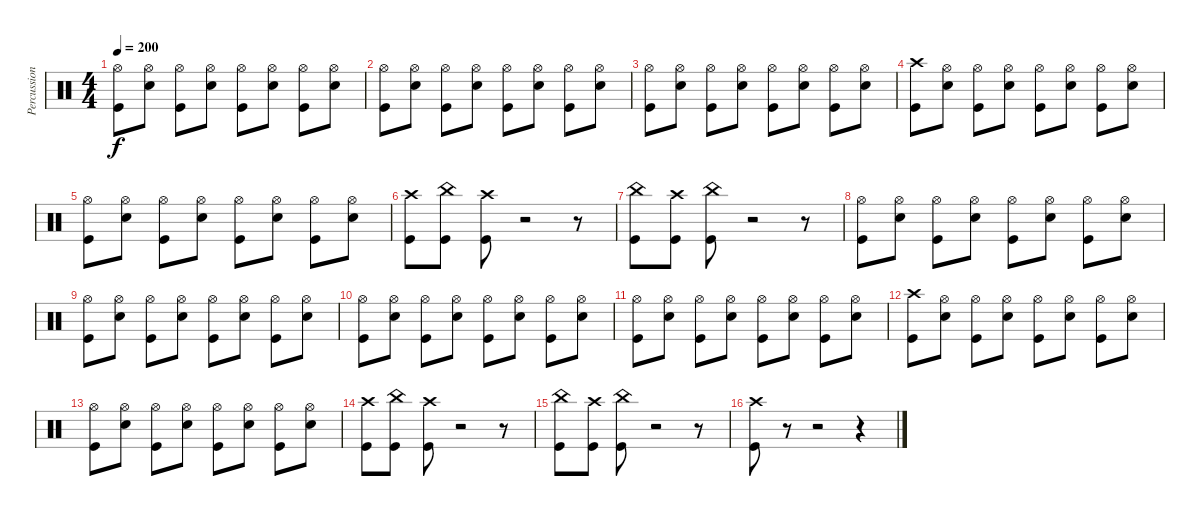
\track ("Percussion" "Percussion") {instrument percussion}
\staff {score}
\articulation defaults
\ts (4 4)
\tempo 200
\clef neutral
\ks c
("Hi-Hat (open)" "Kick (hit)").8{dy f} ("Hi-Hat (open)" "Electric Snare (hit)").8 ("Hi-Hat (open)" "Kick (hit)").8 ("Hi-Hat (open)" "Electric Snare (hit)").8 ("Hi-Hat (open)" "Kick (hit)").8 ("Hi-Hat (open)" "Electric Snare (hit)").8 ("Hi-Hat (open)" "Kick (hit)").8 ("Hi-Hat (open)" "Electric Snare (hit)").8 |
("Hi-Hat (open)" "Kick (hit)").8 ("Hi-Hat (open)" "Electric Snare (hit)").8 ("Hi-Hat (open)" "Kick (hit)").8 ("Hi-Hat (open)" "Electric Snare (hit)").8 ("Hi-Hat (open)" "Kick (hit)").8 ("Hi-Hat (open)" "Electric Snare (hit)").8 ("Hi-Hat (open)" "Kick (hit)").8 ("Hi-Hat (open)" "Electric Snare (hit)").8 |
("Hi-Hat (open)" "Kick (hit)").8 ("Hi-Hat (open)" "Electric Snare (hit)").8 ("Hi-Hat (open)" "Kick (hit)").8 ("Hi-Hat (open)" "Electric Snare (hit)").8 ("Hi-Hat (open)" "Kick (hit)").8 ("Hi-Hat (open)" "Electric Snare (hit)").8 ("Hi-Hat (open)" "Kick (hit)").8 ("Hi-Hat (open)" "Electric Snare (hit)").8 |
("Crash high (hit)" "Kick (hit)").8 ("Hi-Hat (open)" "Electric Snare (hit)").8 ("Hi-Hat (open)" "Kick (hit)").8 ("Hi-Hat (open)" "Electric Snare (hit)").8 ("Hi-Hat (open)" "Kick (hit)").8 ("Hi-Hat (open)" "Electric Snare (hit)").8 ("Hi-Hat (open)" "Kick (hit)").8 ("Hi-Hat (open)" "Electric Snare (hit)").8 |
("Hi-Hat (open)" "Kick (hit)").8 ("Hi-Hat (open)" "Electric Snare (hit)").8 ("Hi-Hat (open)" "Kick (hit)").8 ("Hi-Hat (open)" "Electric Snare (hit)").8 ("Hi-Hat (open)" "Kick (hit)").8 ("Hi-Hat (open)" "Electric Snare (hit)").8 ("Hi-Hat (open)" "Kick (hit)").8 ("Hi-Hat (open)" "Electric Snare (hit)").8 |
("Crash high (hit)" "Kick (hit)").8 ("China (hit)" "Kick (hit)").8 ("Crash high (hit)" "Kick (hit)").8 r.2 r.8 |
("China (hit)" "Kick (hit)").8 ("Crash high (hit)" "Kick (hit)").8 ("China (hit)" "Kick (hit)").8 r.2 r.8 |
("Hi-Hat (open)" "Kick (hit)").8 ("Hi-Hat (open)" "Electric Snare (hit)").8 ("Hi-Hat (open)" "Kick (hit)").8 ("Hi-Hat (open)" "Electric Snare (hit)").8 ("Hi-Hat (open)" "Kick (hit)").8 ("Hi-Hat (open)" "Electric Snare (hit)").8 ("Hi-Hat (open)" "Kick (hit)").8 ("Hi-Hat (open)" "Electric Snare (hit)").8 |
("Hi-Hat (open)" "Kick (hit)").8 ("Hi-Hat (open)" "Electric Snare (hit)").8 ("Hi-Hat (open)" "Kick (hit)").8 ("Hi-Hat (open)" "Electric Snare (hit)").8 ("Hi-Hat (open)" "Kick (hit)").8 ("Hi-Hat (open)" "Electric Snare (hit)").8 ("Hi-Hat (open)" "Kick (hit)").8 ("Hi-Hat (open)" "Electric Snare (hit)").8 |
("Hi-Hat (open)" "Kick (hit)").8 ("Hi-Hat (open)" "Electric Snare (hit)").8 ("Hi-Hat (open)" "Kick (hit)").8 ("Hi-Hat (open)" "Electric Snare (hit)").8 ("Hi-Hat (open)" "Kick (hit)").8 ("Hi-Hat (open)" "Electric Snare (hit)").8 ("Hi-Hat (open)" "Kick (hit)").8 ("Hi-Hat (open)" "Electric Snare (hit)").8 |
("Hi-Hat (open)" "Kick (hit)").8 ("Hi-Hat (open)" "Electric Snare (hit)").8 ("Hi-Hat (open)" "Kick (hit)").8 ("Hi-Hat (open)" "Electric Snare (hit)").8 ("Hi-Hat (open)" "Kick (hit)").8 ("Hi-Hat (open)" "Electric Snare (hit)").8 ("Hi-Hat (open)" "Kick (hit)").8 ("Hi-Hat (open)" "Electric Snare (hit)").8 |
("Crash high (hit)" "Kick (hit)").8 ("Hi-Hat (open)" "Electric Snare (hit)").8 ("Hi-Hat (open)" "Kick (hit)").8 ("Hi-Hat (open)" "Electric Snare (hit)").8 ("Hi-Hat (open)" "Kick (hit)").8 ("Hi-Hat (open)" "Electric Snare (hit)").8 ("Hi-Hat (open)" "Kick (hit)").8 ("Hi-Hat (open)" "Electric Snare (hit)").8 |
("Hi-Hat (open)" "Kick (hit)").8 ("Hi-Hat (open)" "Electric Snare (hit)").8 ("Hi-Hat (open)" "Kick (hit)").8 ("Hi-Hat (open)" "Electric Snare (hit)").8 ("Hi-Hat (open)" "Kick (hit)").8 ("Hi-Hat (open)" "Electric Snare (hit)").8 ("Hi-Hat (open)" "Kick (hit)").8 ("Hi-Hat (open)" "Electric Snare (hit)").8 |
("Crash high (hit)" "Kick (hit)").8 ("China (hit)" "Kick (hit)").8 ("Crash high (hit)" "Kick (hit)").8 r.2 r.8 |
("China (hit)" "Kick (hit)").8 ("Crash high (hit)" "Kick (hit)").8 ("China (hit)" "Kick (hit)").8 r.2 r.8 |
("Crash high (hit)" "Kick (hit)").8 r.8 r.2 r.4
